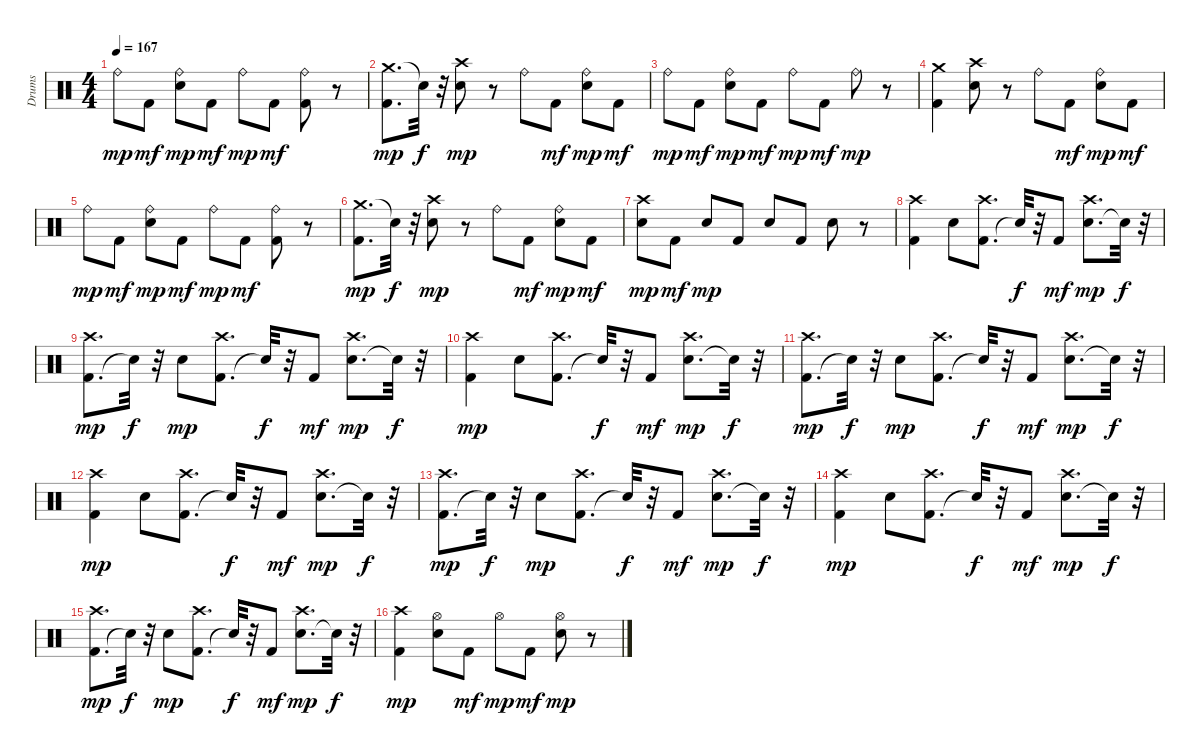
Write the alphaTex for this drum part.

\track ("Drums" "Drums") {instrument percussion}
\staff {score}
\articulation defaults
\ts (4 4)
\tempo 167
\clef neutral
\ks c "Ride (bell)".8{dy mp} "Kick (hit) 2".8{dy mf}
("Electric Snare (hit)" "Ride (bell)").8{dy mp} "Kick (hit) 2".8{dy mf} "Ride (bell)".8{dy mp} "Kick (hit) 2".8{dy mf} ("Ride (bell)" "Kick (hit) 2").8 r.8 |
("Crash medium (hit)" "Kick (hit) 2").8{d dy mp} "Snare (hit)"{t}.32{dy f} r.32 ("Electric Snare (hit)" "Crash high (hit)").8{dy mp} r.8 "Ride (bell)".8 "Kick (hit) 2".8{dy mf} ("Electric Snare (hit)" "Ride (bell)").8{dy mp} "Kick (hit) 2".8{dy mf} |
"Ride (bell)".8{dy mp} "Kick (hit) 2".8{dy mf} ("Electric Snare (hit)" "Ride (bell)").8{dy mp} "Kick (hit) 2".8{dy mf} "Ride (bell)".8{dy mp} "Kick (hit) 2".8{dy mf} "Ride (bell)".8{dy mp} r.8 |
("Kick (hit) 2" "Crash medium (hit)").4 ("Electric Snare (hit)" "Crash high (hit)").8 r.8 "Ride (bell)".8 "Kick (hit) 2".8{dy mf} ("Electric Snare (hit)" "Ride (bell)").8{dy mp} "Kick (hit) 2".8{dy mf} |
"Ride (bell)".8{dy mp} "Kick (hit) 2".8{dy mf} ("Electric Snare (hit)" "Ride (bell)").8{dy mp} "Kick (hit) 2".8{dy mf} "Ride (bell)".8{dy mp} "Kick (hit) 2".8{dy mf} ("Ride (bell)" "Kick (hit) 2").8 r.8 |
("Crash medium (hit)" "Kick (hit) 2").8{d dy mp} "Snare (hit)"{t}.32{dy f} r.32 ("Electric Snare (hit)" "Crash high (hit)").8{dy mp} r.8 "Ride (bell)".8 "Kick (hit) 2".8{dy mf} ("Electric Snare (hit)" "Ride (bell)").8{dy mp} "Kick (hit) 2".8{dy mf} |
("Crash high (hit)" "Electric Snare (hit)").8{dy mp} "Kick (hit) 2".8{dy mf} "Electric Snare (hit)".8{dy mp} "Kick (hit) 2".8 "Electric Snare (hit)".8 "Kick (hit) 2".8 "Electric Snare (hit)".8 r.8 |
("Kick (hit) 2" "Crash high (hit)").4 "Electric Snare (hit)".8 ("Kick (hit) 2" "Crash high (hit)").8{d} "Snare (hit)"{t}.32{dy f} r.32 "Kick (hit) 2".8{dy mf} ("Electric Snare (hit)" "Crash high (hit)").8{d dy mp} "Snare (hit)"{t}.32{dy f} r.32 |
("Kick (hit) 2" "Crash high (hit)").8{d dy mp} "Snare (hit)"{t}.32{dy f} r.32 "Electric Snare (hit)".8{dy mp} ("Kick (hit) 2" "Crash high (hit)").8{d} "Snare (hit)"{t}.32{dy f} r.32 "Kick (hit) 2".8{dy mf} ("Electric Snare (hit)" "Crash high (hit)").8{d dy mp} "Snare (hit)"{t}.32{dy f} r.32 |
("Kick (hit) 2" "Crash high (hit)").4{dy mp} "Electric Snare (hit)".8 ("Kick (hit) 2" "Crash high (hit)").8{d} "Snare (hit)"{t}.32{dy f} r.32 "Kick (hit) 2".8{dy mf} ("Electric Snare (hit)" "Crash high (hit)").8{d dy mp} "Snare (hit)"{t}.32{dy f} r.32 |
("Kick (hit) 2" "Crash high (hit)").8{d dy mp} "Snare (hit)"{t}.32{dy f} r.32 "Electric Snare (hit)".8{dy mp} ("Kick (hit) 2" "Crash high (hit)").8{d} "Snare (hit)"{t}.32{dy f} r.32 "Kick (hit) 2".8{dy mf} ("Electric Snare (hit)" "Crash high (hit)").8{d dy mp} "Snare (hit)"{t}.32{dy f} r.32 |
("Kick (hit) 2" "Crash high (hit)").4{dy mp} "Electric Snare (hit)".8 ("Kick (hit) 2" "Crash high (hit)").8{d} "Snare (hit)"{t}.32{dy f} r.32 "Kick (hit) 2".8{dy mf} ("Electric Snare (hit)" "Crash high (hit)").8{d dy mp} "Snare (hit)"{t}.32{dy f} r.32 |
("Kick (hit) 2" "Crash high (hit)").8{d dy mp} "Snare (hit)"{t}.32{dy f} r.32 "Electric Snare (hit)".8{dy mp} ("Kick (hit) 2" "Crash high (hit)").8{d} "Snare (hit)"{t}.32{dy f} r.32 "Kick (hit) 2".8{dy mf} ("Electric Snare (hit)" "Crash high (hit)").8{d dy mp} "Snare (hit)"{t}.32{dy f} r.32 |
("Kick (hit) 2" "Crash high (hit)").4{dy mp} "Electric Snare (hit)".8 ("Kick (hit) 2" "Crash high (hit)").8{d} "Snare (hit)"{t}.32{dy f} r.32 "Kick (hit) 2".8{dy mf} ("Electric Snare (hit)" "Crash high (hit)").8{d dy mp} "Snare (hit)"{t}.32{dy f} r.32 |
("Kick (hit) 2" "Crash high (hit)").8{d dy mp} "Snare (hit)"{t}.32{dy f} r.32 "Electric Snare (hit)".8{dy mp} ("Kick (hit) 2" "Crash high (hit)").8{d} "Snare (hit)"{t}.32{dy f} r.32 "Kick (hit) 2".8{dy mf} ("Electric Snare (hit)" "Crash high (hit)").8{d dy mp} "Snare (hit)"{t}.32{dy f} r.32 |
("Kick (hit) 2" "Crash high (hit)").4{dy mp} ("Electric Snare (hit)" "Hi-Hat (open)").8 "Kick (hit) 2".8{dy mf} "Hi-Hat (open)".8{dy mp} "Kick (hit) 2".8{dy mf} ("Electric Snare (hit)" "Hi-Hat (open)").8{dy mp} r.8
